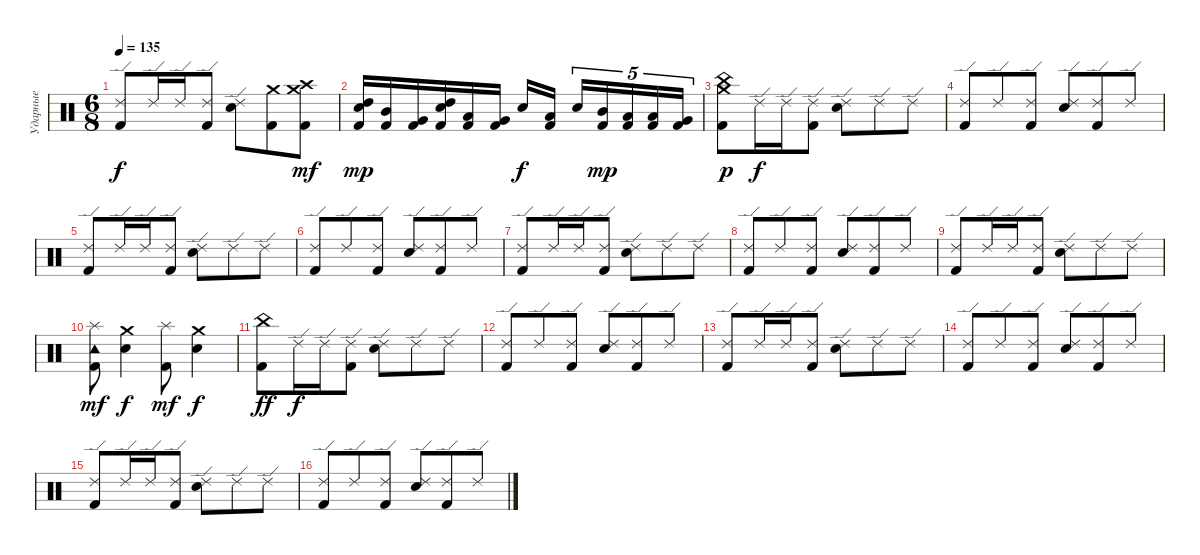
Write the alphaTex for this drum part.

\track ("Ударные" "Ударные") {instrument percussion}
\staff {score}
\articulation defaults
\ts (6 8)
\tempo 135
\clef neutral
\ks c
("Ride (edge) 2" "Kick (hit) 2").8{dy f} "Ride (edge) 2".16 "Ride (edge) 2".16 ("Ride (edge) 2" "Kick (hit) 2").8 ("Ride (edge) 2" "Electric Snare (hit)").8 ("Crash medium (hit)" "Kick (hit) 2").8 ("Crash high (hit)" "Crash medium (hit)" "Kick (hit) 2").8{dy mf} |
("Electric Snare (hit)" "High Tom (hit)" "Kick (hit) 2").16{dy mp} ("Mid Tom (hit)" "Kick (hit) 2").16 ("Very Low Tom (hit)" "Kick (hit) 2").16 ("Electric Snare (hit)" "High Tom (hit)" "Kick (hit) 2").16 ("Low Tom (hit)" "Kick (hit) 2").16 ("Very Low Tom (hit)" "Kick (hit) 2").16 "Electric Snare (hit)".16{dy f} ("Low Tom (hit)" "Kick (hit) 2").16 "Electric Snare (hit)".16{tu (5 4)} ("Mid Tom (hit)" "Kick (hit) 2").16{tu (5 4) dy mp} ("Low Tom (hit)" "Kick (hit) 2").16{tu (5 4)} ("Low Tom (hit)" "Kick (hit) 2").16{tu (5 4)} ("Very Low Tom (hit)" "Kick (hit) 2").16{tu (5 4)} |
\section ("" "")
("Crash medium (hit)" "China (hit)" "Kick (hit) 2").8{dy p} "Ride (edge) 2".16{dy f} "Ride (edge) 2".16 ("Ride (edge) 2" "Kick (hit) 2").8 ("Ride (edge) 2" "Electric Snare (hit)").8 "Ride (edge) 2".8 "Ride (edge) 2".8 |
("Ride (edge) 2" "Kick (hit) 2").8 "Ride (edge) 2".8 ("Ride (edge) 2" "Kick (hit) 2").8 ("Ride (edge) 2" "Electric Snare (hit)").8 ("Ride (edge) 2" "Kick (hit) 2").8 "Ride (edge) 2".8 |
("Ride (edge) 2" "Kick (hit) 2").8 "Ride (edge) 2".16 "Ride (edge) 2".16 ("Ride (edge) 2" "Kick (hit) 2").8 ("Ride (edge) 2" "Electric Snare (hit)").8 "Ride (edge) 2".8 "Ride (edge) 2".8 |
("Ride (edge) 2" "Kick (hit) 2").8 "Ride (edge) 2".8 ("Ride (edge) 2" "Kick (hit) 2").8 ("Ride (edge) 2" "Electric Snare (hit)").8 ("Ride (edge) 2" "Kick (hit) 2").8 "Ride (edge) 2".8 |
("Ride (edge) 2" "Kick (hit) 2").8 "Ride (edge) 2".16 "Ride (edge) 2".16 ("Ride (edge) 2" "Kick (hit) 2").8 ("Ride (edge) 2" "Electric Snare (hit)").8 "Ride (edge) 2".8 "Ride (edge) 2".8 |
("Ride (edge) 2" "Kick (hit) 2").8 "Ride (edge) 2".8 ("Ride (edge) 2" "Kick (hit) 2").8 ("Ride (edge) 2" "Electric Snare (hit)").8 ("Ride (edge) 2" "Kick (hit) 2").8 "Ride (edge) 2".8 |
("Ride (edge) 2" "Kick (hit) 2").8 "Ride (edge) 2".16 "Ride (edge) 2".16 ("Ride (edge) 2" "Kick (hit) 2").8 ("Ride (edge) 2" "Electric Snare (hit)").8 "Ride (edge) 2".8 "Ride (edge) 2".8 |
("Kick (hit) 2" "Tambourine (hit)" "Splash (hit)").8{dy mf} ("Electric Snare (hit)" "Crash medium (hit)").4{dy f} ("Kick (hit) 2" "Splash (hit)").8{dy mf} ("Electric Snare (hit)" "Crash medium (hit)").4{dy f} |
("China (hit)" "Kick (hit) 2").8{dy ff} "Ride (edge) 2".16{dy f} "Ride (edge) 2".16 ("Ride (edge) 2" "Kick (hit) 2").8 ("Ride (edge) 2" "Electric Snare (hit)").8 "Ride (edge) 2".8 "Ride (edge) 2".8 |
("Ride (edge) 2" "Kick (hit) 2").8 "Ride (edge) 2".8 ("Ride (edge) 2" "Kick (hit) 2").8 ("Ride (edge) 2" "Electric Snare (hit)").8 ("Ride (edge) 2" "Kick (hit) 2").8 "Ride (edge) 2".8 |
("Ride (edge) 2" "Kick (hit) 2").8 "Ride (edge) 2".16 "Ride (edge) 2".16 ("Ride (edge) 2" "Kick (hit) 2").8 ("Ride (edge) 2" "Electric Snare (hit)").8 "Ride (edge) 2".8 "Ride (edge) 2".8 |
("Ride (edge) 2" "Kick (hit) 2").8 "Ride (edge) 2".8 ("Ride (edge) 2" "Kick (hit) 2").8 ("Ride (edge) 2" "Electric Snare (hit)").8 ("Ride (edge) 2" "Kick (hit) 2").8 "Ride (edge) 2".8 |
("Ride (edge) 2" "Kick (hit) 2").8 "Ride (edge) 2".16 "Ride (edge) 2".16 ("Ride (edge) 2" "Kick (hit) 2").8 ("Ride (edge) 2" "Electric Snare (hit)").8 "Ride (edge) 2".8 "Ride (edge) 2".8 |
("Ride (edge) 2" "Kick (hit) 2").8 "Ride (edge) 2".8 ("Ride (edge) 2" "Kick (hit) 2").8 ("Ride (edge) 2" "Electric Snare (hit)").8 ("Ride (edge) 2" "Kick (hit) 2").8 "Ride (edge) 2".8
